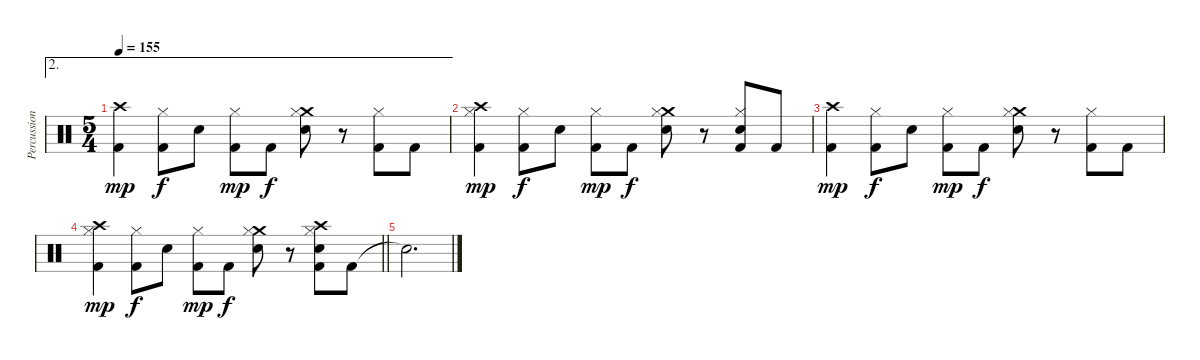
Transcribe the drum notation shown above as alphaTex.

\track ("Percussion" "Percussion") {instrument percussion}
\staff {score}
\articulation defaults
\ae 2
\ts (5 4)
\tempo 155
\clef neutral
\ks c
("Crash high (hit)" "Kick (hit) 2").4{dy mp} ("Hi-Hat (closed)" "Kick (hit) 2").8{dy f} "Snare (hit) 2".8 ("Hi-Hat (closed)" "Kick (hit) 2").8{dy mp} "Kick (hit) 2".8{dy f} ("Crash medium (hit)" "Hi-Hat (closed)" "Snare (hit) 2").8 r.8 ("Hi-Hat (closed)" "Kick (hit) 2").8 "Kick (hit) 2".8 |
("Crash high (hit)" "Hi-Hat (closed)" "Kick (hit) 2").4{dy mp} ("Hi-Hat (closed)" "Kick (hit) 2").8{dy f} "Snare (hit) 2".8 ("Hi-Hat (closed)" "Kick (hit) 2").8{dy mp} "Kick (hit) 2".8{dy f} ("Crash medium (hit)" "Hi-Hat (closed)" "Snare (hit) 2").8 r.8 ("Hi-Hat (closed)" "Snare (hit) 2" "Kick (hit) 2").8 "Kick (hit) 2".8 |
("Crash high (hit)" "Kick (hit) 2").4{dy mp} ("Hi-Hat (closed)" "Kick (hit) 2").8{dy f} "Snare (hit) 2".8 ("Hi-Hat (closed)" "Kick (hit) 2").8{dy mp} "Kick (hit) 2".8{dy f} ("Crash medium (hit)" "Hi-Hat (closed)" "Snare (hit) 2").8 r.8 ("Hi-Hat (closed)" "Kick (hit) 2").8 "Kick (hit) 2".8 |
\barLineRight lightlight
("Crash high (hit)" "Hi-Hat (closed)" "Kick (hit) 2").4{dy mp} ("Hi-Hat (closed)" "Kick (hit) 2").8{dy f} "Snare (hit) 2".8 ("Hi-Hat (closed)" "Kick (hit) 2").8{dy mp} "Kick (hit) 2".8{dy f} ("Crash medium (hit)" "Hi-Hat (closed)" "Snare (hit) 2").8 r.8 ("Crash high (hit)" "Hi-Hat (closed)" "Snare (hit) 2" "Kick (hit) 2").8 "Kick (hit) 2".8 |
"Snare (hit)"{t}.2{d}
